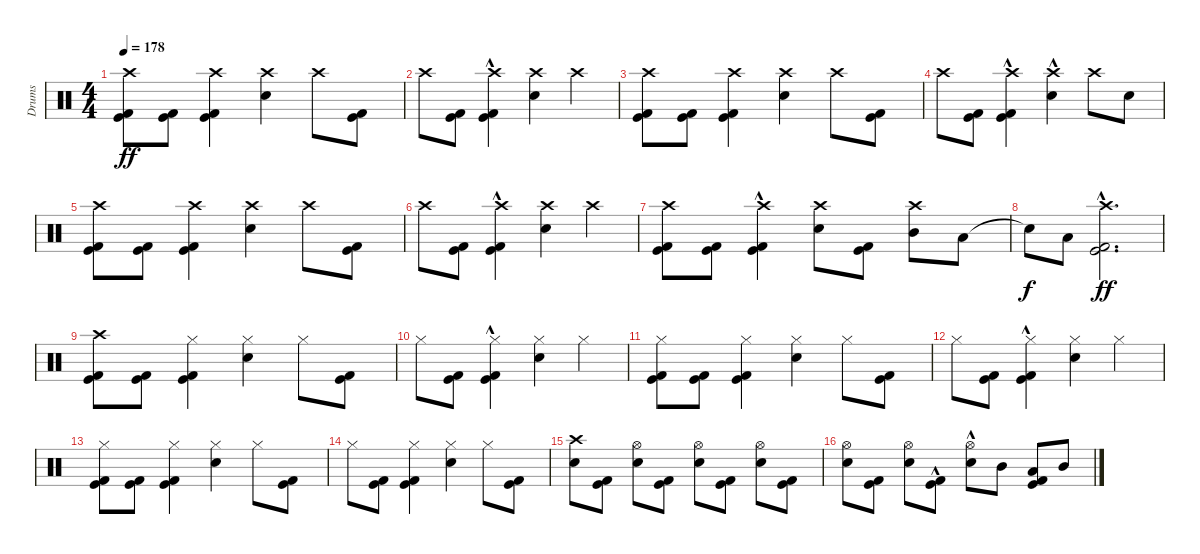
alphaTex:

\track ("Drums" "Drums") {instrument percussion}
\staff {score}
\articulation defaults
\ts (4 4)
\tempo 178
\clef neutral
\ks c
("Kick (hit)" "Kick (hit) 2" "Crash high (hit)").8{dy ff} ("Kick (hit)" "Kick (hit) 2").8 ("Kick (hit)" "Kick (hit) 2" "Crash high (hit)").4 ("Electric Snare (hit)" "Crash high (hit)").4 "Crash high (hit)".8 ("Kick (hit)" "Kick (hit) 2").8 |
"Crash high (hit)".8 ("Kick (hit)" "Kick (hit) 2").8 ("Kick (hit)"{hac} "Kick (hit) 2"{hac} "Crash high (hit)").4 ("Electric Snare (hit)" "Crash high (hit)").4 "Crash high (hit)".4 |
("Kick (hit)" "Kick (hit) 2" "Crash high (hit)").8 ("Kick (hit)" "Kick (hit) 2").8 ("Kick (hit)" "Kick (hit) 2" "Crash high (hit)").4 ("Electric Snare (hit)" "Crash high (hit)").4 "Crash high (hit)".8 ("Kick (hit)" "Kick (hit) 2").8 |
"Crash high (hit)".8 ("Kick (hit)" "Kick (hit) 2").8 ("Kick (hit)"{hac} "Kick (hit) 2"{hac} "Crash high (hit)").4 ("Electric Snare (hit)"{hac} "Crash high (hit)").4 "Crash high (hit)".8 "Electric Snare (hit)".8 |
("Kick (hit)" "Kick (hit) 2" "Crash high (hit)").8 ("Kick (hit)" "Kick (hit) 2").8 ("Kick (hit)" "Kick (hit) 2" "Crash high (hit)").4 ("Electric Snare (hit)" "Crash high (hit)").4 "Crash high (hit)".8 ("Kick (hit)" "Kick (hit) 2").8 |
"Crash high (hit)".8 ("Kick (hit)" "Kick (hit) 2").8 ("Kick (hit)"{hac} "Kick (hit) 2"{hac} "Crash high (hit)").4 ("Electric Snare (hit)" "Crash high (hit)").4 "Crash high (hit)".4 |
("Kick (hit)" "Kick (hit) 2" "Crash high (hit)").8 ("Kick (hit)" "Kick (hit) 2").8 ("Kick (hit)"{hac} "Kick (hit) 2"{hac} "Crash high (hit)").4 ("Electric Snare (hit)" "Crash high (hit)").8 ("Kick (hit)" "Kick (hit) 2").8 ("Mid Tom (hit)" "Crash high (hit)").8 "Low Tom (hit)".8 |
"Snare (hit)"{t}.8{dy f} "Low Tom (hit)".8 ("Kick (hit)"{hac} "Kick (hit) 2"{hac} "Crash high (hit)"{hac}).2{d dy ff} |
("Kick (hit)" "Kick (hit) 2" "Crash high (hit)").8 ("Kick (hit)" "Kick (hit) 2").8 ("Kick (hit)" "Kick (hit) 2" "Hi-Hat (closed)").4 ("Electric Snare (hit)" "Hi-Hat (closed)").4 "Hi-Hat (closed)".8 ("Kick (hit)" "Kick (hit) 2").8 |
"Hi-Hat (closed)".8 ("Kick (hit)" "Kick (hit) 2").8 ("Kick (hit)"{hac} "Kick (hit) 2"{hac} "Hi-Hat (closed)").4 ("Electric Snare (hit)" "Hi-Hat (closed)").4 "Hi-Hat (closed)".4 |
("Kick (hit)" "Kick (hit) 2" "Hi-Hat (closed)").8 ("Kick (hit)" "Kick (hit) 2").8 ("Kick (hit)" "Kick (hit) 2" "Hi-Hat (closed)").4 ("Electric Snare (hit)" "Hi-Hat (closed)").4 "Hi-Hat (closed)".8 ("Kick (hit)" "Kick (hit) 2").8 |
"Hi-Hat (closed)".8 ("Kick (hit)" "Kick (hit) 2").8 ("Kick (hit)"{hac} "Kick (hit) 2"{hac} "Hi-Hat (closed)").4 ("Electric Snare (hit)" "Hi-Hat (closed)").4 "Hi-Hat (closed)".4 |
("Kick (hit)" "Kick (hit) 2" "Hi-Hat (closed)").8 ("Kick (hit)" "Kick (hit) 2").8 ("Kick (hit)" "Kick (hit) 2" "Hi-Hat (closed)").4 ("Electric Snare (hit)" "Hi-Hat (closed)").4 "Hi-Hat (closed)".8 ("Kick (hit)" "Kick (hit) 2").8 |
"Hi-Hat (closed)".8 ("Kick (hit)" "Kick (hit) 2").8 ("Kick (hit)" "Kick (hit) 2" "Hi-Hat (closed)").4 ("Electric Snare (hit)" "Hi-Hat (closed)").4 "Hi-Hat (closed)".8 ("Kick (hit)" "Kick (hit) 2").8 |
("Electric Snare (hit)" "Crash high (hit)").8 ("Kick (hit)" "Kick (hit) 2").8 ("Electric Snare (hit)" "Hi-Hat (open)").8 ("Kick (hit)" "Kick (hit) 2").8 ("Electric Snare (hit)" "Hi-Hat (open)").8 ("Kick (hit)" "Kick (hit) 2").8 ("Electric Snare (hit)" "Hi-Hat (open)").8 ("Kick (hit)" "Kick (hit) 2").8 |
("Electric Snare (hit)" "Hi-Hat (open)").8 ("Kick (hit)" "Kick (hit) 2").8 ("Electric Snare (hit)" "Hi-Hat (open)").8 ("Kick (hit)"{hac} "Kick (hit) 2"{hac}).8 ("Electric Snare (hit)" "Hi-Hat (open)"{hac}).8 "Mid Tom (hit)".8 ("Kick (hit)" "Kick (hit) 2" "Low Tom (hit)").8 "Mid Tom (hit)".8
